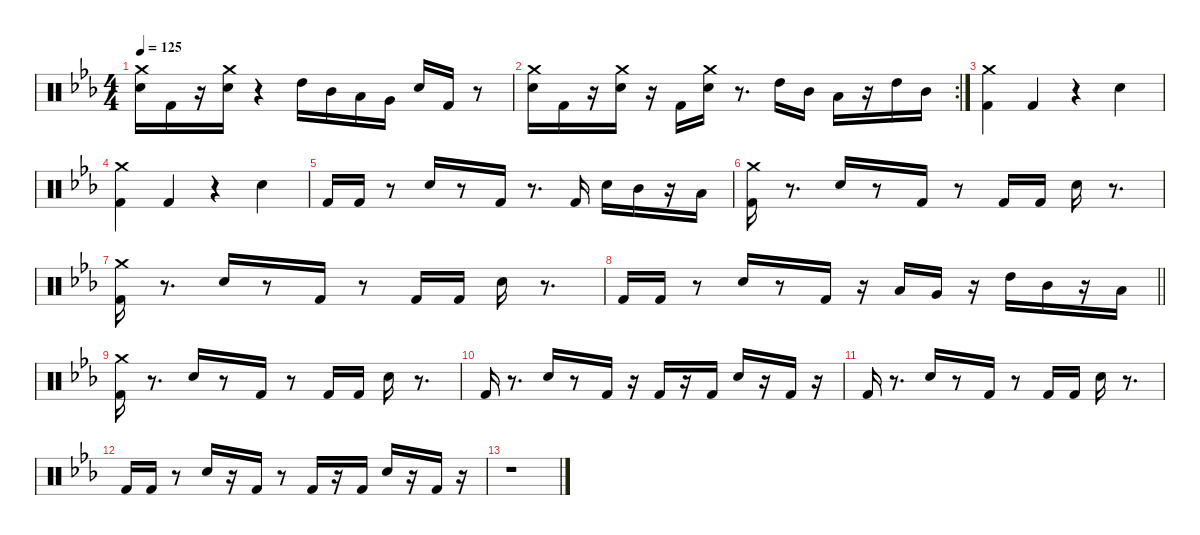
\defaultSystemsLayout 4
\hideDynamics
\bracketExtendMode nobrackets
\singleTrackTrackNamePolicy hidden
\multiTrackTrackNamePolicy hidden
\firstSystemTrackNameMode fullname
\firstSystemTrackNameOrientation horizontal
\otherSystemsTrackNameOrientation horizontal
\track ("Batterie" "drm.") {defaultSystemsLayout 4 instrument percussion}
\staff {score}
\articulation defaults
\ts (4 4)
\tempo 125
\clef neutral
\ks eb
("Crash medium (hit)"{acc forcenatural} "Snare (hit) 2"{acc forcenatural}).16{dy f beam Down} "Kick (hit) 2"{acc forcenatural}.16{beam Down} r.16{beam Down} ("Crash medium (hit)"{acc forcenatural} "Snare (hit) 2"{acc forcenatural}).16{beam Down} r.4{beam Down} "High Tom (hit)"{acc forcenatural}.16{beam Down} "Mid Tom (hit)"{acc forcenatural}.16{beam Down} "Low Tom (hit)"{acc forcenatural}.16{beam Down} "Very Low Tom (hit)"{acc forcenatural}.16{beam Down} "Snare (hit) 2"{acc forcenatural}.16{beam Up} "Kick (hit) 2"{acc forcenatural}.16{beam Up} r.8{beam Up} |
\rc 2
("Crash medium (hit)"{acc forcenatural} "Snare (hit) 2"{acc forcenatural}).16{beam Down} "Kick (hit) 2"{acc forcenatural}.16{beam Down} r.16{beam Down} ("Crash medium (hit)"{acc forcenatural} "Snare (hit) 2"{acc forcenatural}).16{beam Down} r.16{beam Down} "Kick (hit) 2"{acc forcenatural}.16{beam Down} ("Crash medium (hit)"{acc forcenatural} "Snare (hit) 2"{acc forcenatural}).16{beam Down} r.8{d beam Down} "High Tom (hit)"{acc forcenatural}.16{beam Down} "Mid Tom (hit)"{acc forcenatural}.16{beam Down} "Low Tom (hit)"{acc forcenatural}.16{beam Down} r.16{beam Down} "High Tom (hit)"{acc forcenatural}.16{beam Down} "Mid Tom (hit)"{acc forcenatural}.16{beam Down} |
("Crash medium (hit)"{acc forcenatural} "Kick (hit) 2"{acc forcenatural}).4{beam Down} "Kick (hit) 2"{acc forcenatural}.4{beam Up} r.4{beam Up} "Snare (hit) 2"{acc forcenatural}.4{beam Down} |
("Crash medium (hit)"{acc forcenatural} "Kick (hit) 2"{acc forcenatural}).4{beam Down} "Kick (hit) 2"{acc forcenatural}.4{beam Up} r.4{beam Up} "Snare (hit) 2"{acc forcenatural}.4{beam Down} |
"Kick (hit) 2"{acc forcenatural}.16{beam Up} "Kick (hit) 2"{acc forcenatural}.16{beam Up} r.8{beam Up} "Snare (hit) 2"{acc forcenatural}.16{beam Up} r.8{beam Up} "Kick (hit) 2"{acc forcenatural}.16{beam Up} r.8{d beam Up} "Kick (hit) 2"{acc forcenatural}.16{beam Up} "Snare (hit) 2"{acc forcenatural}.16{beam Down} "Mid Tom (hit)"{acc forcenatural}.16{beam Down} r.16{beam Down} "Low Tom (hit)"{acc forcenatural}.16{beam Down} |
("Crash medium (hit)"{acc forcenatural} "Kick (hit) 2"{acc forcenatural}).16{beam Down} r.8{d beam Down} "Snare (hit) 2"{acc forcenatural}.16{beam Up} r.8{beam Up} "Kick (hit) 2"{acc forcenatural}.16{beam Up} r.8{beam Up} "Kick (hit) 2"{acc forcenatural}.16{beam Up} "Kick (hit) 2"{acc forcenatural}.16{beam Up} "Snare (hit) 2"{acc forcenatural}.16{beam Down} r.8{d beam Down} |
("Crash medium (hit)"{acc forcenatural} "Kick (hit) 2"{acc forcenatural}).16{beam Down} r.8{d beam Down} "Snare (hit) 2"{acc forcenatural}.16{beam Up} r.8{beam Up} "Kick (hit) 2"{acc forcenatural}.16{beam Up} r.8{beam Up} "Kick (hit) 2"{acc forcenatural}.16{beam Up} "Kick (hit) 2"{acc forcenatural}.16{beam Up} "Snare (hit) 2"{acc forcenatural}.16{beam Down} r.8{d beam Down} |
\barLineRight lightlight "Kick (hit) 2"{acc forcenatural}.16{beam Up} "Kick (hit) 2"{acc forcenatural}.16{beam Up}
r.8{beam Up} "Snare (hit) 2"{acc forcenatural}.16{beam Up} r.8{beam Up} "Kick (hit) 2"{acc forcenatural}.16{beam Up} r.16{beam Up} "Low Tom (hit)"{acc forcenatural}.16{beam Up} "Very Low Tom (hit)"{acc forcenatural}.16{beam Up} r.16{beam Up} "High Tom (hit)"{acc forcenatural}.16{beam Down} "Mid Tom (hit)"{acc forcenatural}.16{beam Down} r.16{beam Down} "Low Tom (hit)"{acc forcenatural}.16{beam Down} |
("Crash medium (hit)"{acc forcenatural} "Kick (hit) 2"{acc forcenatural}).16{beam Down} r.8{d beam Down} "Snare (hit) 2"{acc forcenatural}.16{beam Up} r.8{beam Up} "Kick (hit) 2"{acc forcenatural}.16{beam Up} r.8{beam Up} "Kick (hit) 2"{acc forcenatural}.16{beam Up} "Kick (hit) 2"{acc forcenatural}.16{beam Up} "Snare (hit) 2"{acc forcenatural}.16{beam Down} r.8{d beam Down} |
"Kick (hit) 2"{acc forcenatural}.16{beam Up} r.8{d beam Up} "Snare (hit) 2"{acc forcenatural}.16{beam Up} r.8{beam Up} "Kick (hit) 2"{acc forcenatural}.16{beam Up} r.16{beam Up} "Kick (hit) 2"{acc forcenatural}.16{beam Up} r.16{beam Up} "Kick (hit) 2"{acc forcenatural}.16{beam Up} "Snare (hit) 2"{acc forcenatural}.16{beam Up} r.16{beam Up} "Kick (hit) 2"{acc forcenatural}.16{beam Up} r.16{beam Up} |
"Kick (hit) 2"{acc forcenatural}.16{beam Up} r.8{d beam Up} "Snare (hit) 2"{acc forcenatural}.16{beam Up} r.8{beam Up} "Kick (hit) 2"{acc forcenatural}.16{beam Up} r.8{beam Up} "Kick (hit) 2"{acc forcenatural}.16{beam Up} "Kick (hit) 2"{acc forcenatural}.16{beam Up} "Snare (hit) 2"{acc forcenatural}.16{beam Down} r.8{d beam Down} |
"Kick (hit) 2"{acc forcenatural}.16{beam Up} "Kick (hit) 2"{acc forcenatural}.16{beam Up} r.8{beam Up} "Snare (hit) 2"{acc forcenatural}.16{beam Up} r.16{beam Up} "Kick (hit) 2"{acc forcenatural}.16{beam Up} r.8{beam Up} "Kick (hit) 2"{acc forcenatural}.16{beam Up} r.16{beam Up} "Kick (hit) 2"{acc forcenatural}.16{beam Up} "Snare (hit) 2"{acc forcenatural}.16{beam Up} r.16{beam Up} "Kick (hit) 2"{acc forcenatural}.16{beam Up} r.16{beam Up} |
r.1{beam Down}
